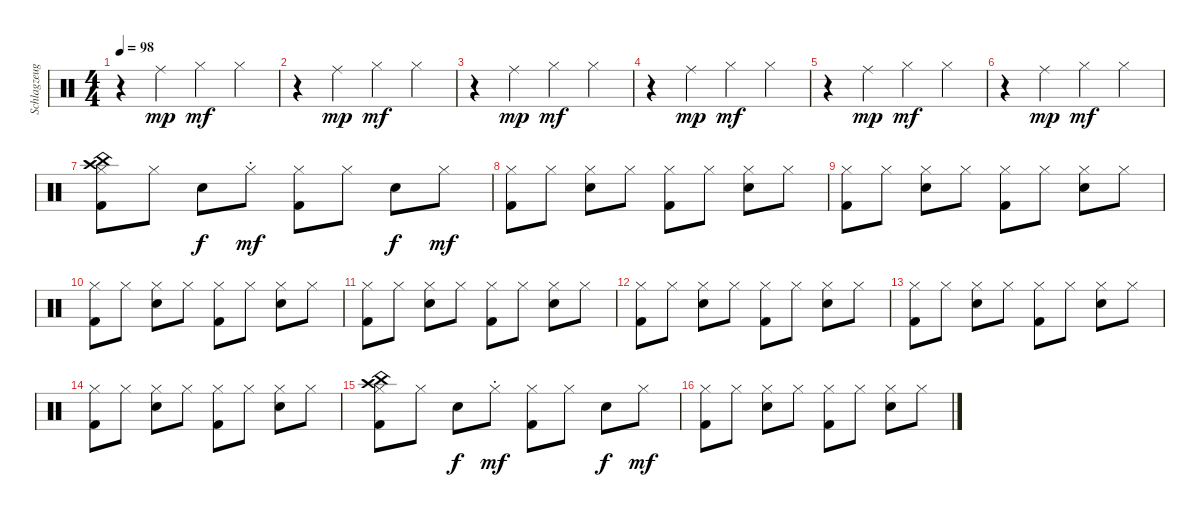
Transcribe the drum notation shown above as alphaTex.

\track ("Schlagzeug" "Schlagzeug") {instrument percussion}
\staff {score}
\articulation defaults
\ts (4 4)
\tempo 98
\clef neutral
\ks c
r.4{dy mf} "Ride (middle)".4{dy mp} "Hi-Hat (closed)".4{dy mf} "Hi-Hat (closed)".4 |
r.4 "Ride (middle)".4{dy mp} "Hi-Hat (closed)".4{dy mf} "Hi-Hat (closed)".4 |
r.4 "Ride (middle)".4{dy mp} "Hi-Hat (closed)".4{dy mf} "Hi-Hat (closed)".4 |
r.4 "Ride (middle)".4{dy mp} "Hi-Hat (closed)".4{dy mf} "Hi-Hat (closed)".4 |
r.4 "Ride (middle)".4{dy mp} "Hi-Hat (closed)".4{dy mf} "Hi-Hat (closed)".4 |
r.4 "Ride (middle)".4{dy mp} "Hi-Hat (closed)".4{dy mf} "Hi-Hat (closed)".4 |
("China (hit)" "Hi-Hat (closed)" "Crash high (hit)" "Kick (hit) 2").8 "Hi-Hat (closed)".8 "Electric Snare (hit)".8{dy f} "Hi-Hat (closed)"{st}.8{dy mf} ("Hi-Hat (closed)" "Kick (hit) 2").8 "Hi-Hat (closed)".8 "Electric Snare (hit)".8{dy f} "Hi-Hat (closed)".8{dy mf} |
("Hi-Hat (closed)" "Kick (hit) 2").8 "Hi-Hat (closed)".8 ("Hi-Hat (closed)" "Electric Snare (hit)").8 "Hi-Hat (closed)".8 ("Hi-Hat (closed)" "Kick (hit) 2").8 "Hi-Hat (closed)".8 ("Hi-Hat (closed)" "Electric Snare (hit)").8 "Hi-Hat (closed)".8 |
("Hi-Hat (closed)" "Kick (hit) 2").8 "Hi-Hat (closed)".8 ("Hi-Hat (closed)" "Electric Snare (hit)").8 "Hi-Hat (closed)".8 ("Hi-Hat (closed)" "Kick (hit) 2").8 "Hi-Hat (closed)".8 ("Hi-Hat (closed)" "Electric Snare (hit)").8 "Hi-Hat (closed)".8 |
("Hi-Hat (closed)" "Kick (hit) 2").8 "Hi-Hat (closed)".8 ("Hi-Hat (closed)" "Electric Snare (hit)").8 "Hi-Hat (closed)".8 ("Hi-Hat (closed)" "Kick (hit) 2").8 "Hi-Hat (closed)".8 ("Hi-Hat (closed)" "Electric Snare (hit)").8 "Hi-Hat (closed)".8 |
("Hi-Hat (closed)" "Kick (hit) 2").8 "Hi-Hat (closed)".8 ("Hi-Hat (closed)" "Electric Snare (hit)").8 "Hi-Hat (closed)".8 ("Hi-Hat (closed)" "Kick (hit) 2").8 "Hi-Hat (closed)".8 ("Hi-Hat (closed)" "Electric Snare (hit)").8 "Hi-Hat (closed)".8 |
("Hi-Hat (closed)" "Kick (hit) 2").8 "Hi-Hat (closed)".8 ("Hi-Hat (closed)" "Electric Snare (hit)").8 "Hi-Hat (closed)".8 ("Hi-Hat (closed)" "Kick (hit) 2").8 "Hi-Hat (closed)".8 ("Hi-Hat (closed)" "Electric Snare (hit)").8 "Hi-Hat (closed)".8 |
("Hi-Hat (closed)" "Kick (hit) 2").8 "Hi-Hat (closed)".8 ("Hi-Hat (closed)" "Electric Snare (hit)").8 "Hi-Hat (closed)".8 ("Hi-Hat (closed)" "Kick (hit) 2").8 "Hi-Hat (closed)".8 ("Hi-Hat (closed)" "Electric Snare (hit)").8 "Hi-Hat (closed)".8 |
("Hi-Hat (closed)" "Kick (hit) 2").8 "Hi-Hat (closed)".8 ("Hi-Hat (closed)" "Electric Snare (hit)").8 "Hi-Hat (closed)".8 ("Hi-Hat (closed)" "Kick (hit) 2").8 "Hi-Hat (closed)".8 ("Hi-Hat (closed)" "Electric Snare (hit)").8 "Hi-Hat (closed)".8 |
("China (hit)" "Hi-Hat (closed)" "Crash high (hit)" "Kick (hit) 2").8 "Hi-Hat (closed)".8 "Electric Snare (hit)".8{dy f} "Hi-Hat (closed)"{st}.8{dy mf} ("Hi-Hat (closed)" "Kick (hit) 2").8 "Hi-Hat (closed)".8 "Electric Snare (hit)".8{dy f} "Hi-Hat (closed)".8{dy mf} |
("Hi-Hat (closed)" "Kick (hit) 2").8 "Hi-Hat (closed)".8 ("Hi-Hat (closed)" "Electric Snare (hit)").8 "Hi-Hat (closed)".8 ("Hi-Hat (closed)" "Kick (hit) 2").8 "Hi-Hat (closed)".8 ("Hi-Hat (closed)" "Electric Snare (hit)").8 "Hi-Hat (closed)".8
